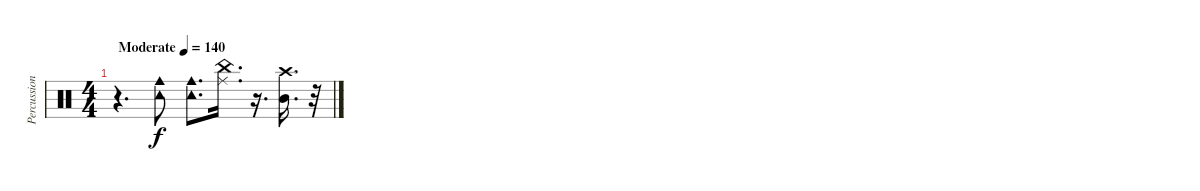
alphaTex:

\track ("Percussion" "Percussion") {instrument percussion}
\staff {score}
\articulation defaults
\ts (4 4)
\tempo (140 "Moderate")
\clef neutral
\ks c
r.4{d dy f} ("Tambourine (hit)" "Cowbell medium (hit)").8 ("Tambourine (hit)" "Cowbell medium (hit)").8{d} ("China (hit)" "Ride (middle)").16{d} r.16{d} ("Mid Tom (hit)" "Crash high (hit)").16{d} r.32
